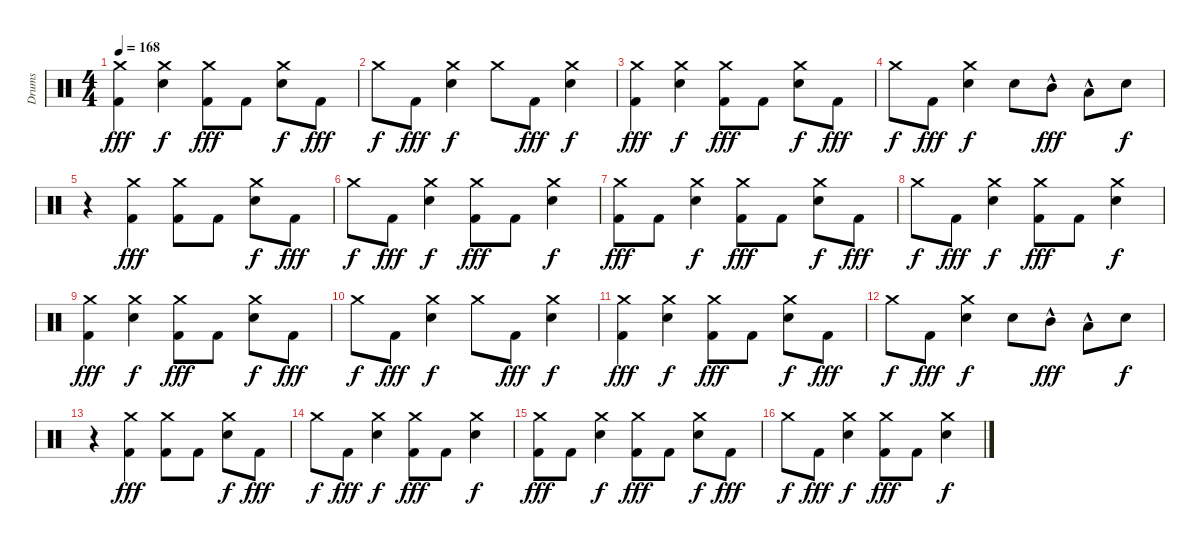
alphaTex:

\track ("Drums" "Drums") {instrument percussion}
\staff {score}
\articulation defaults
\ts (4 4)
\tempo 168
\clef neutral
\ks c
("Crash medium (hit)" "Kick (hit) 2").4{dy fff} ("Crash medium (hit)" "Electric Snare (hit)").4{dy f} ("Crash medium (hit)" "Kick (hit) 2").8{dy fff} "Kick (hit) 2".8 ("Crash medium (hit)" "Electric Snare (hit)").8{dy f} "Kick (hit) 2".8{dy fff} |
"Crash medium (hit)".8{dy f} "Kick (hit) 2".8{dy fff} ("Crash medium (hit)" "Electric Snare (hit)").4{dy f} "Crash medium (hit)".8 "Kick (hit) 2".8{dy fff} ("Crash medium (hit)" "Electric Snare (hit)").4{dy f} |
("Crash medium (hit)" "Kick (hit) 2").4{dy fff} ("Crash medium (hit)" "Electric Snare (hit)").4{dy f} ("Crash medium (hit)" "Kick (hit) 2").8{dy fff} "Kick (hit) 2".8 ("Crash medium (hit)" "Electric Snare (hit)").8{dy f} "Kick (hit) 2".8{dy fff} |
"Crash medium (hit)".8{dy f} "Kick (hit) 2".8{dy fff} ("Crash medium (hit)" "Electric Snare (hit)").4{dy f} "Electric Snare (hit)".8 "Mid Tom (hit)"{hac}.8{dy fff} "Low Tom (hit)"{hac}.8 "Electric Snare (hit)".8{dy f} |
r.4 ("Crash medium (hit)" "Kick (hit) 2").4{dy fff} ("Crash medium (hit)" "Kick (hit) 2").8 "Kick (hit) 2".8 ("Crash medium (hit)" "Electric Snare (hit)").8{dy f} "Kick (hit) 2".8{dy fff} |
"Crash medium (hit)".8{dy f} "Kick (hit) 2".8{dy fff} ("Crash medium (hit)" "Electric Snare (hit)").4{dy f} ("Crash medium (hit)" "Kick (hit) 2").8{dy fff} "Kick (hit) 2".8 ("Crash medium (hit)" "Electric Snare (hit)").4{dy f} |
("Crash medium (hit)" "Kick (hit) 2").8{dy fff} "Kick (hit) 2".8 ("Crash medium (hit)" "Electric Snare (hit)").4{dy f} ("Crash medium (hit)" "Kick (hit) 2").8{dy fff} "Kick (hit) 2".8 ("Crash medium (hit)" "Electric Snare (hit)").8{dy f} "Kick (hit) 2".8{dy fff} |
"Crash medium (hit)".8{dy f} "Kick (hit) 2".8{dy fff} ("Crash medium (hit)" "Electric Snare (hit)").4{dy f} ("Crash medium (hit)" "Kick (hit) 2").8{dy fff} "Kick (hit) 2".8 ("Crash medium (hit)" "Electric Snare (hit)").4{dy f} |
("Crash medium (hit)" "Kick (hit) 2").4{dy fff} ("Crash medium (hit)" "Electric Snare (hit)").4{dy f} ("Crash medium (hit)" "Kick (hit) 2").8{dy fff} "Kick (hit) 2".8 ("Crash medium (hit)" "Electric Snare (hit)").8{dy f} "Kick (hit) 2".8{dy fff} |
"Crash medium (hit)".8{dy f} "Kick (hit) 2".8{dy fff} ("Crash medium (hit)" "Electric Snare (hit)").4{dy f} "Crash medium (hit)".8 "Kick (hit) 2".8{dy fff} ("Crash medium (hit)" "Electric Snare (hit)").4{dy f} |
("Crash medium (hit)" "Kick (hit) 2").4{dy fff} ("Crash medium (hit)" "Electric Snare (hit)").4{dy f} ("Crash medium (hit)" "Kick (hit) 2").8{dy fff} "Kick (hit) 2".8 ("Crash medium (hit)" "Electric Snare (hit)").8{dy f} "Kick (hit) 2".8{dy fff} |
"Crash medium (hit)".8{dy f} "Kick (hit) 2".8{dy fff} ("Crash medium (hit)" "Electric Snare (hit)").4{dy f} "Electric Snare (hit)".8 "Mid Tom (hit)"{hac}.8{dy fff} "Low Tom (hit)"{hac}.8 "Electric Snare (hit)".8{dy f} |
r.4 ("Crash medium (hit)" "Kick (hit) 2").4{dy fff} ("Crash medium (hit)" "Kick (hit) 2").8 "Kick (hit) 2".8 ("Crash medium (hit)" "Electric Snare (hit)").8{dy f} "Kick (hit) 2".8{dy fff} |
"Crash medium (hit)".8{dy f} "Kick (hit) 2".8{dy fff} ("Crash medium (hit)" "Electric Snare (hit)").4{dy f} ("Crash medium (hit)" "Kick (hit) 2").8{dy fff} "Kick (hit) 2".8 ("Crash medium (hit)" "Electric Snare (hit)").4{dy f} |
("Crash medium (hit)" "Kick (hit) 2").8{dy fff} "Kick (hit) 2".8 ("Crash medium (hit)" "Electric Snare (hit)").4{dy f} ("Crash medium (hit)" "Kick (hit) 2").8{dy fff} "Kick (hit) 2".8 ("Crash medium (hit)" "Electric Snare (hit)").8{dy f} "Kick (hit) 2".8{dy fff} |
"Crash medium (hit)".8{dy f} "Kick (hit) 2".8{dy fff} ("Crash medium (hit)" "Electric Snare (hit)").4{dy f} ("Crash medium (hit)" "Kick (hit) 2").8{dy fff} "Kick (hit) 2".8 ("Crash medium (hit)" "Electric Snare (hit)").4{dy f}
